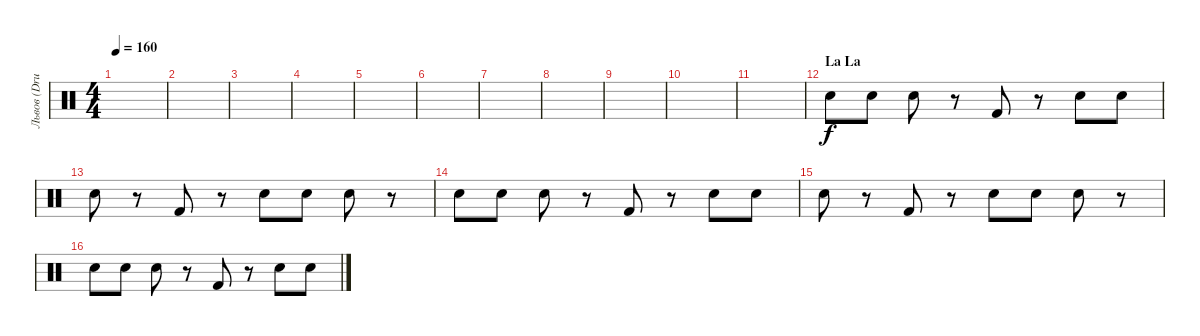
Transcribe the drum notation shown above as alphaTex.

\track ("Львов (Drums)" "Львов (Dru") {instrument percussion}
\staff {score}
\articulation defaults
\ts (4 4)
\tempo 160
\clef neutral
\ks c
|
|
|
|
|
|
|
|
|
|
|
\section ("" "La La")
"Electric Snare (hit)".8 "Electric Snare (hit)".8 "Electric Snare (hit)".8 r.8 "Kick (hit) 2".8 r.8 "Electric Snare (hit)".8 "Electric Snare (hit)".8 |
"Electric Snare (hit)".8 r.8 "Kick (hit) 2".8 r.8 "Electric Snare (hit)".8 "Electric Snare (hit)".8 "Electric Snare (hit)".8 r.8 |
"Electric Snare (hit)".8 "Electric Snare (hit)".8 "Electric Snare (hit)".8 r.8 "Kick (hit) 2".8 r.8 "Electric Snare (hit)".8 "Electric Snare (hit)".8 |
"Electric Snare (hit)".8 r.8 "Kick (hit) 2".8 r.8 "Electric Snare (hit)".8 "Electric Snare (hit)".8 "Electric Snare (hit)".8 r.8 |
"Electric Snare (hit)".8 "Electric Snare (hit)".8 "Electric Snare (hit)".8 r.8 "Kick (hit) 2".8 r.8 "Electric Snare (hit)".8 "Electric Snare (hit)".8
